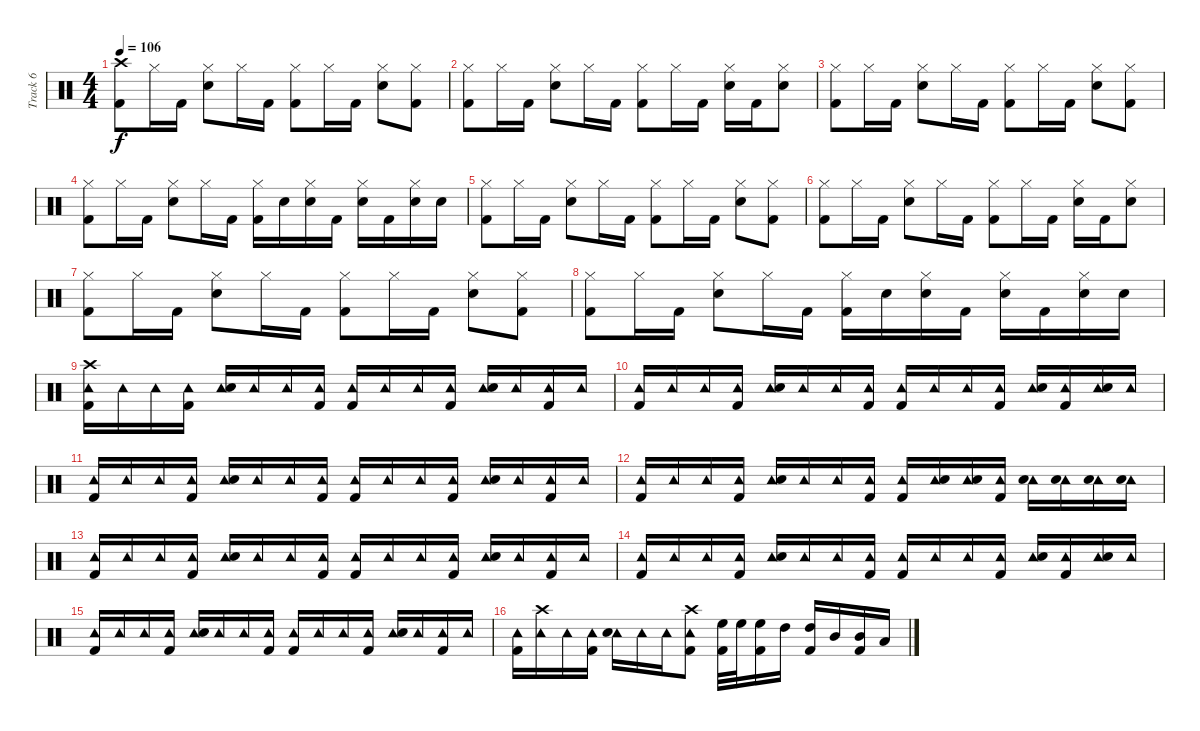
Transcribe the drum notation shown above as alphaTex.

\track ("Track 6" "Track 6") {instrument percussion}
\staff {score}
\articulation defaults
\ts (4 4)
\tempo 106
\clef neutral
\ks c
("Crash high (hit)" "Kick (hit) 2").8{dy f} "Hi-Hat (closed)".16 "Kick (hit) 2".16 ("Hi-Hat (closed)" "Snare (hit) 2").8 "Hi-Hat (closed)".16 "Kick (hit) 2".16 ("Hi-Hat (closed)" "Kick (hit) 2").8 "Hi-Hat (closed)".16 "Kick (hit) 2".16 ("Hi-Hat (closed)" "Snare (hit) 2").8 ("Hi-Hat (closed)" "Kick (hit) 2").8 |
("Hi-Hat (closed)" "Kick (hit) 2").8 "Hi-Hat (closed)".16 "Kick (hit) 2".16 ("Hi-Hat (closed)" "Snare (hit) 2").8 "Hi-Hat (closed)".16 "Kick (hit) 2".16 ("Hi-Hat (closed)" "Kick (hit) 2").8 "Hi-Hat (closed)".16 "Kick (hit) 2".16 ("Hi-Hat (closed)" "Snare (hit) 2").16 "Kick (hit) 2".16 ("Hi-Hat (closed)" "Snare (hit) 2").8 |
("Hi-Hat (closed)" "Kick (hit) 2").8 "Hi-Hat (closed)".16 "Kick (hit) 2".16 ("Hi-Hat (closed)" "Snare (hit) 2").8 "Hi-Hat (closed)".16 "Kick (hit) 2".16 ("Hi-Hat (closed)" "Kick (hit) 2").8 "Hi-Hat (closed)".16 "Kick (hit) 2".16 ("Hi-Hat (closed)" "Snare (hit) 2").8 ("Hi-Hat (closed)" "Kick (hit) 2").8 |
("Hi-Hat (closed)" "Kick (hit) 2").8 "Hi-Hat (closed)".16 "Kick (hit) 2".16 ("Hi-Hat (closed)" "Snare (hit) 2").8 "Hi-Hat (closed)".16 "Kick (hit) 2".16 ("Hi-Hat (closed)" "Kick (hit) 2").16 "Snare (hit) 2".16 ("Hi-Hat (closed)" "Snare (hit) 2").16 "Kick (hit) 2".16 ("Hi-Hat (closed)" "Snare (hit) 2").16 "Kick (hit) 2".16 ("Hi-Hat (closed)" "Snare (hit) 2").16 "Snare (hit) 2".16 |
("Hi-Hat (closed)" "Kick (hit) 2").8 "Hi-Hat (closed)".16 "Kick (hit) 2".16 ("Hi-Hat (closed)" "Snare (hit) 2").8 "Hi-Hat (closed)".16 "Kick (hit) 2".16 ("Hi-Hat (closed)" "Kick (hit) 2").8 "Hi-Hat (closed)".16 "Kick (hit) 2".16 ("Hi-Hat (closed)" "Snare (hit) 2").8 ("Hi-Hat (closed)" "Kick (hit) 2").8 |
("Hi-Hat (closed)" "Kick (hit) 2").8 "Hi-Hat (closed)".16 "Kick (hit) 2".16 ("Hi-Hat (closed)" "Snare (hit) 2").8 "Hi-Hat (closed)".16 "Kick (hit) 2".16 ("Hi-Hat (closed)" "Kick (hit) 2").8 "Hi-Hat (closed)".16 "Kick (hit) 2".16 ("Hi-Hat (closed)" "Snare (hit) 2").16 "Kick (hit) 2".16 ("Hi-Hat (closed)" "Snare (hit) 2").8 |
("Hi-Hat (closed)" "Kick (hit) 2").8 "Hi-Hat (closed)".16 "Kick (hit) 2".16 ("Hi-Hat (closed)" "Snare (hit) 2").8 "Hi-Hat (closed)".16 "Kick (hit) 2".16 ("Hi-Hat (closed)" "Kick (hit) 2").8 "Hi-Hat (closed)".16 "Kick (hit) 2".16 ("Hi-Hat (closed)" "Snare (hit) 2").8 ("Hi-Hat (closed)" "Kick (hit) 2").8 |
("Hi-Hat (closed)" "Kick (hit) 2").8 "Hi-Hat (closed)".16 "Kick (hit) 2".16 ("Hi-Hat (closed)" "Snare (hit) 2").8 "Hi-Hat (closed)".16 "Kick (hit) 2".16 ("Hi-Hat (closed)" "Kick (hit) 2").16 "Snare (hit) 2".16 ("Hi-Hat (closed)" "Snare (hit) 2").16 "Kick (hit) 2".16 ("Hi-Hat (closed)" "Snare (hit) 2").16 "Kick (hit) 2".16 ("Hi-Hat (closed)" "Snare (hit) 2").16 "Snare (hit) 2".16 |
("Tambourine (hit)" "Crash high (hit)" "Kick (hit) 2").16 "Tambourine (hit)".16 "Tambourine (hit)".16 ("Tambourine (hit)" "Kick (hit) 2").16 ("Tambourine (hit)" "Snare (hit) 2").16 "Tambourine (hit)".16 "Tambourine (hit)".16 ("Tambourine (hit)" "Kick (hit) 2").16 ("Tambourine (hit)" "Kick (hit) 2").16 "Tambourine (hit)".16 "Tambourine (hit)".16 ("Tambourine (hit)" "Kick (hit) 2").16 ("Tambourine (hit)" "Snare (hit) 2").16 "Tambourine (hit)".16 ("Tambourine (hit)" "Kick (hit) 2").16 "Tambourine (hit)".16 |
("Tambourine (hit)" "Kick (hit) 2").16 "Tambourine (hit)".16 "Tambourine (hit)".16 ("Tambourine (hit)" "Kick (hit) 2").16 ("Tambourine (hit)" "Snare (hit) 2").16 "Tambourine (hit)".16 "Tambourine (hit)".16 ("Tambourine (hit)" "Kick (hit) 2").16 ("Tambourine (hit)" "Kick (hit) 2").16 "Tambourine (hit)".16 "Tambourine (hit)".16 ("Tambourine (hit)" "Kick (hit) 2").16 ("Tambourine (hit)" "Snare (hit) 2").16 ("Tambourine (hit)" "Kick (hit) 2").16 ("Tambourine (hit)" "Snare (hit) 2").16 "Tambourine (hit)".16 |
("Tambourine (hit)" "Kick (hit) 2").16 "Tambourine (hit)".16 "Tambourine (hit)".16 ("Tambourine (hit)" "Kick (hit) 2").16 ("Tambourine (hit)" "Snare (hit) 2").16 "Tambourine (hit)".16 "Tambourine (hit)".16 ("Tambourine (hit)" "Kick (hit) 2").16 ("Tambourine (hit)" "Kick (hit) 2").16 "Tambourine (hit)".16 "Tambourine (hit)".16 ("Tambourine (hit)" "Kick (hit) 2").16 ("Tambourine (hit)" "Snare (hit) 2").16 "Tambourine (hit)".16 ("Tambourine (hit)" "Kick (hit) 2").16 "Tambourine (hit)".16 |
("Tambourine (hit)" "Kick (hit) 2").16 "Tambourine (hit)".16 "Tambourine (hit)".16 ("Tambourine (hit)" "Kick (hit) 2").16 ("Tambourine (hit)" "Snare (hit) 2").16 "Tambourine (hit)".16 "Tambourine (hit)".16 ("Tambourine (hit)" "Kick (hit) 2").16 ("Tambourine (hit)" "Kick (hit) 2").16 ("Tambourine (hit)" "Snare (hit) 2").16 ("Tambourine (hit)" "Snare (hit) 2").16 ("Tambourine (hit)" "Kick (hit) 2").16 ("Tambourine (hit)" "Snare (hit) 2").16 ("Tambourine (hit)" "Snare (hit) 2").16 ("Tambourine (hit)" "Snare (hit) 2").16 ("Tambourine (hit)" "Snare (hit) 2").16 |
("Tambourine (hit)" "Kick (hit) 2").16 "Tambourine (hit)".16 "Tambourine (hit)".16 ("Tambourine (hit)" "Kick (hit) 2").16 ("Tambourine (hit)" "Snare (hit) 2").16 "Tambourine (hit)".16 "Tambourine (hit)".16 ("Tambourine (hit)" "Kick (hit) 2").16 ("Tambourine (hit)" "Kick (hit) 2").16 "Tambourine (hit)".16 "Tambourine (hit)".16 ("Tambourine (hit)" "Kick (hit) 2").16 ("Tambourine (hit)" "Snare (hit) 2").16 "Tambourine (hit)".16 ("Tambourine (hit)" "Kick (hit) 2").16 "Tambourine (hit)".16 |
("Tambourine (hit)" "Kick (hit) 2").16 "Tambourine (hit)".16 "Tambourine (hit)".16 ("Tambourine (hit)" "Kick (hit) 2").16 ("Tambourine (hit)" "Snare (hit) 2").16 "Tambourine (hit)".16 "Tambourine (hit)".16 ("Tambourine (hit)" "Kick (hit) 2").16 ("Tambourine (hit)" "Kick (hit) 2").16 "Tambourine (hit)".16 "Tambourine (hit)".16 ("Tambourine (hit)" "Kick (hit) 2").16 ("Tambourine (hit)" "Snare (hit) 2").16 ("Tambourine (hit)" "Kick (hit) 2").16 ("Tambourine (hit)" "Snare (hit) 2").16 "Tambourine (hit)".16 |
("Tambourine (hit)" "Kick (hit) 2").16 "Tambourine (hit)".16 "Tambourine (hit)".16 ("Tambourine (hit)" "Kick (hit) 2").16 ("Tambourine (hit)" "Snare (hit) 2").16 "Tambourine (hit)".16 "Tambourine (hit)".16 ("Tambourine (hit)" "Kick (hit) 2").16 ("Tambourine (hit)" "Kick (hit) 2").16 "Tambourine (hit)".16 "Tambourine (hit)".16 ("Tambourine (hit)" "Kick (hit) 2").16 ("Tambourine (hit)" "Snare (hit) 2").16 "Tambourine (hit)".16 ("Tambourine (hit)" "Kick (hit) 2").16 "Tambourine (hit)".16 |
("Tambourine (hit)" "Kick (hit) 2").16 ("Tambourine (hit)" "Crash high (hit)").16 "Tambourine (hit)".16 ("Tambourine (hit)" "Kick (hit) 2").16 ("Tambourine (hit)" "Snare (hit) 2").16 "Tambourine (hit)".16 "Tambourine (hit)".16 ("Tambourine (hit)" "Crash high (hit)" "Kick (hit) 2").8 ("High Floor Tom (hit)" "Kick (hit) 2").32 "High Floor Tom (hit)".32 ("High Floor Tom (hit)" "Kick (hit) 2").16 "High Tom (hit)".16 ("High Tom (hit)" "Kick (hit) 2").16 "Mid Tom (hit)".16 ("Mid Tom (hit)" "Kick (hit) 2").16 "Low Tom (hit)".16
